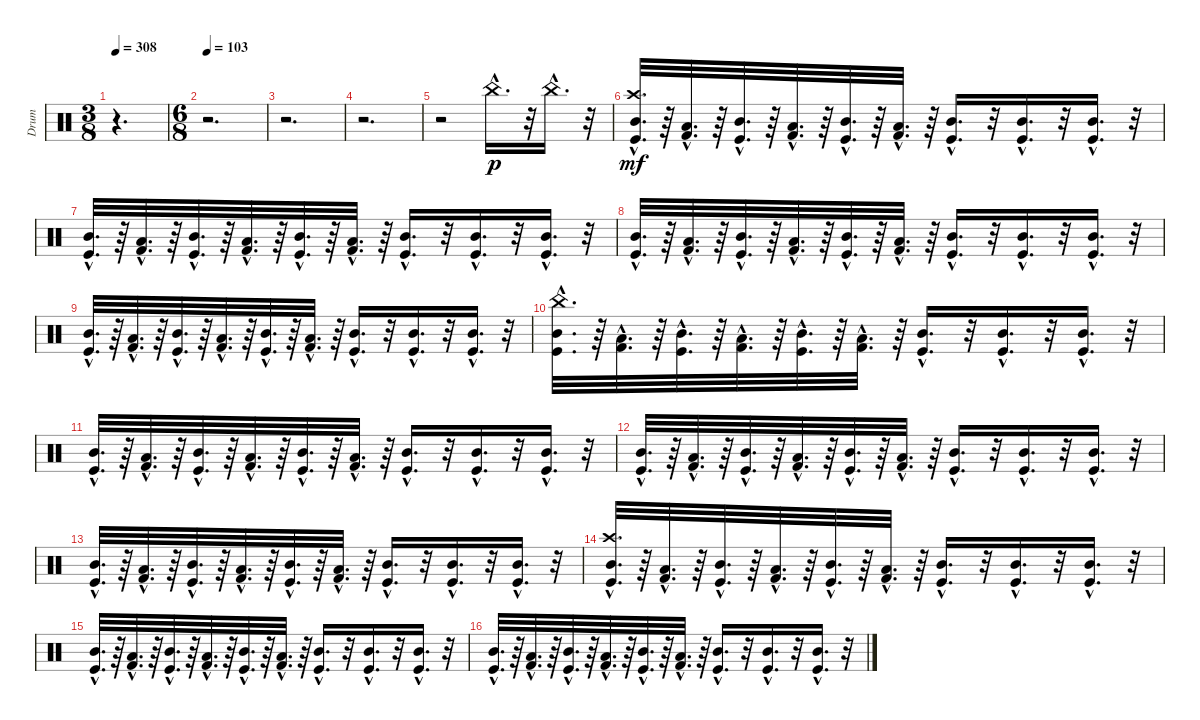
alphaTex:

\track ("Drum" "Drum") {instrument percussion}
\staff {score}
\articulation defaults
\ts (3 8)
\tempo 308
\clef neutral
\ks c
r.4{d dy p} |
\ts (6 8)
\tempo 103
r.2{d} |
r.2{d} |
r.2{d} |
r.2 "China (hit)"{hac}.16{d} r.32 "China (hit)"{hac}.16{d} r.32 |
("Kick (hit)"{hac} "Crash high (hit)"{hac} "Mid Tom (hit)"{hac}).32{d dy mf} r.64 ("Kick (hit) 2"{hac} "Low Tom (hit)"{hac}).32{d} r.64 ("Kick (hit)"{hac} "Mid Tom (hit)"{hac}).32{d} r.64 ("Kick (hit) 2"{hac} "Low Tom (hit)"{hac}).32{d} r.64 ("Kick (hit)"{hac} "Mid Tom (hit)"{hac}).32{d} r.64 ("Kick (hit) 2"{hac} "Low Tom (hit)"{hac}).32{d} r.64 ("Kick (hit)"{hac} "Mid Tom (hit)"{hac}).16{d} r.32 ("Kick (hit)"{hac} "Mid Tom (hit)"{hac}).16{d} r.32 ("Kick (hit)"{hac} "Mid Tom (hit)"{hac}).16{d} r.32 |
("Kick (hit)"{hac} "Mid Tom (hit)"{hac}).32{d} r.64 ("Kick (hit) 2"{hac} "Low Tom (hit)"{hac}).32{d} r.64 ("Kick (hit)"{hac} "Mid Tom (hit)"{hac}).32{d} r.64 ("Kick (hit) 2"{hac} "Low Tom (hit)"{hac}).32{d} r.64 ("Kick (hit)"{hac} "Mid Tom (hit)"{hac}).32{d} r.64 ("Kick (hit) 2"{hac} "Low Tom (hit)"{hac}).32{d} r.64 ("Kick (hit)"{hac} "Mid Tom (hit)"{hac}).16{d} r.32 ("Kick (hit)"{hac} "Mid Tom (hit)"{hac}).16{d} r.32 ("Kick (hit)"{hac} "Mid Tom (hit)"{hac}).16{d} r.32 |
("Kick (hit)"{hac} "Mid Tom (hit)"{hac}).32{d} r.64 ("Kick (hit) 2"{hac} "Low Tom (hit)"{hac}).32{d} r.64 ("Kick (hit)"{hac} "Mid Tom (hit)"{hac}).32{d} r.64 ("Kick (hit) 2"{hac} "Low Tom (hit)"{hac}).32{d} r.64 ("Kick (hit)"{hac} "Mid Tom (hit)"{hac}).32{d} r.64 ("Kick (hit) 2"{hac} "Low Tom (hit)"{hac}).32{d} r.64 ("Kick (hit)"{hac} "Mid Tom (hit)"{hac}).16{d} r.32 ("Kick (hit)"{hac} "Mid Tom (hit)"{hac}).16{d} r.32 ("Kick (hit)"{hac} "Mid Tom (hit)"{hac}).16{d} r.32 |
("Kick (hit)"{hac} "Mid Tom (hit)"{hac}).32{d} r.64 ("Kick (hit) 2"{hac} "Low Tom (hit)"{hac}).32{d} r.64 ("Kick (hit)"{hac} "Mid Tom (hit)"{hac}).32{d} r.64 ("Kick (hit) 2"{hac} "Low Tom (hit)"{hac}).32{d} r.64 ("Kick (hit)"{hac} "Mid Tom (hit)"{hac}).32{d} r.64 ("Kick (hit) 2"{hac} "Low Tom (hit)"{hac}).32{d} r.64 ("Kick (hit)"{hac} "Mid Tom (hit)"{hac}).16{d} r.32 ("Kick (hit)"{hac} "Mid Tom (hit)"{hac}).16{d} r.32 ("Kick (hit)"{hac} "Mid Tom (hit)"{hac}).16{d} r.32 |
("Mid Tom (hit)"{hac} "China (hit)"{hac} "Kick (hit)"{hac}).32{d} r.64 ("Low Tom (hit)"{hac} "Kick (hit) 2"{hac}).32{d} r.64 ("Mid Tom (hit)"{hac} "Kick (hit)"{hac}).32{d} r.64 ("Low Tom (hit)"{hac} "Kick (hit) 2"{hac}).32{d} r.64 ("Mid Tom (hit)"{hac} "Kick (hit)"{hac}).32{d} r.64 ("Low Tom (hit)"{hac} "Kick (hit) 2"{hac}).32{d} r.64 ("Mid Tom (hit)"{hac} "Kick (hit)"{hac}).16{d} r.32 ("Mid Tom (hit)"{hac} "Kick (hit)"{hac}).16{d} r.32 ("Mid Tom (hit)"{hac} "Kick (hit)"{hac}).16{d} r.32 |
("Kick (hit)"{hac} "Mid Tom (hit)"{hac}).32{d} r.64 ("Kick (hit) 2"{hac} "Low Tom (hit)"{hac}).32{d} r.64 ("Kick (hit)"{hac} "Mid Tom (hit)"{hac}).32{d} r.64 ("Kick (hit) 2"{hac} "Low Tom (hit)"{hac}).32{d} r.64 ("Kick (hit)"{hac} "Mid Tom (hit)"{hac}).32{d} r.64 ("Kick (hit) 2"{hac} "Low Tom (hit)"{hac}).32{d} r.64 ("Kick (hit)"{hac} "Mid Tom (hit)"{hac}).16{d} r.32 ("Kick (hit)"{hac} "Mid Tom (hit)"{hac}).16{d} r.32 ("Kick (hit)"{hac} "Mid Tom (hit)"{hac}).16{d} r.32 |
("Mid Tom (hit)"{hac} "Kick (hit)"{hac}).32{d} r.64 ("Low Tom (hit)"{hac} "Kick (hit) 2"{hac}).32{d} r.64 ("Mid Tom (hit)"{hac} "Kick (hit)"{hac}).32{d} r.64 ("Low Tom (hit)"{hac} "Kick (hit) 2"{hac}).32{d} r.64 ("Mid Tom (hit)"{hac} "Kick (hit)"{hac}).32{d} r.64 ("Low Tom (hit)"{hac} "Kick (hit) 2"{hac}).32{d} r.64 ("Mid Tom (hit)"{hac} "Kick (hit)"{hac}).16{d} r.32 ("Mid Tom (hit)"{hac} "Kick (hit)"{hac}).16{d} r.32 ("Mid Tom (hit)"{hac} "Kick (hit)"{hac}).16{d} r.32 |
("Mid Tom (hit)"{hac} "Kick (hit)"{hac}).32{d} r.64 ("Low Tom (hit)"{hac} "Kick (hit) 2"{hac}).32{d} r.64 ("Mid Tom (hit)"{hac} "Kick (hit)"{hac}).32{d} r.64 ("Low Tom (hit)"{hac} "Kick (hit) 2"{hac}).32{d} r.64 ("Mid Tom (hit)"{hac} "Kick (hit)"{hac}).32{d} r.64 ("Low Tom (hit)"{hac} "Kick (hit) 2"{hac}).32{d} r.64 ("Mid Tom (hit)"{hac} "Kick (hit)"{hac}).16{d} r.32 ("Mid Tom (hit)"{hac} "Kick (hit)"{hac}).16{d} r.32 ("Mid Tom (hit)"{hac} "Kick (hit)"{hac}).16{d} r.32 |
("Mid Tom (hit)"{hac} "Crash high (hit)"{hac} "Kick (hit)"{hac}).32{d} r.64 ("Low Tom (hit)"{hac} "Kick (hit) 2"{hac}).32{d} r.64 ("Mid Tom (hit)"{hac} "Kick (hit)"{hac}).32{d} r.64 ("Low Tom (hit)"{hac} "Kick (hit) 2"{hac}).32{d} r.64 ("Mid Tom (hit)"{hac} "Kick (hit)"{hac}).32{d} r.64 ("Low Tom (hit)"{hac} "Kick (hit) 2"{hac}).32{d} r.64 ("Mid Tom (hit)"{hac} "Kick (hit)"{hac}).16{d} r.32 ("Mid Tom (hit)"{hac} "Kick (hit)"{hac}).16{d} r.32 ("Mid Tom (hit)"{hac} "Kick (hit)"{hac}).16{d} r.32 |
("Kick (hit)"{hac} "Mid Tom (hit)"{hac}).32{d} r.64 ("Kick (hit) 2"{hac} "Low Tom (hit)"{hac}).32{d} r.64 ("Kick (hit)"{hac} "Mid Tom (hit)"{hac}).32{d} r.64 ("Kick (hit) 2"{hac} "Low Tom (hit)"{hac}).32{d} r.64 ("Kick (hit)"{hac} "Mid Tom (hit)"{hac}).32{d} r.64 ("Kick (hit) 2"{hac} "Low Tom (hit)"{hac}).32{d} r.64 ("Kick (hit)"{hac} "Mid Tom (hit)"{hac}).16{d} r.32 ("Kick (hit)"{hac} "Mid Tom (hit)"{hac}).16{d} r.32 ("Kick (hit)"{hac} "Mid Tom (hit)"{hac}).16{d} r.32 |
("Mid Tom (hit)"{hac} "Kick (hit)"{hac}).32{d} r.64 ("Low Tom (hit)"{hac} "Kick (hit) 2"{hac}).32{d} r.64 ("Mid Tom (hit)"{hac} "Kick (hit)"{hac}).32{d} r.64 ("Low Tom (hit)"{hac} "Kick (hit) 2"{hac}).32{d} r.64 ("Mid Tom (hit)"{hac} "Kick (hit)"{hac}).32{d} r.64 ("Low Tom (hit)"{hac} "Kick (hit) 2"{hac}).32{d} r.64 ("Mid Tom (hit)"{hac} "Kick (hit)"{hac}).16{d} r.32 ("Mid Tom (hit)"{hac} "Kick (hit)"{hac}).16{d} r.32 ("Mid Tom (hit)"{hac} "Kick (hit)"{hac}).16{d} r.32
